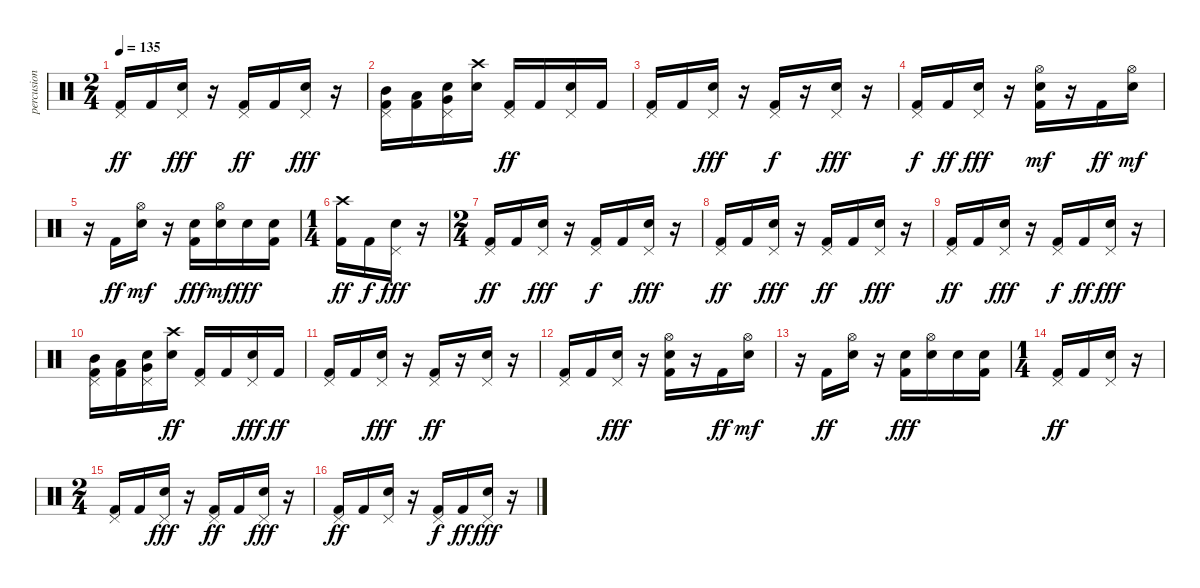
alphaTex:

\track ("percusion" "percusion") {instrument percussion}
\staff {score}
\articulation defaults
\ts (2 4)
\tempo 135
\clef neutral
\ks c
("Kick (hit) 2" "Pedal Hi-Hat (hit)").16{dy ff} "Kick (hit) 2".16 ("Electric Snare (hit)" "Pedal Hi-Hat (hit)").16{dy fff} r.16 ("Kick (hit) 2" "Pedal Hi-Hat (hit)").16{dy ff} "Kick (hit) 2".16 ("Electric Snare (hit)" "Pedal Hi-Hat (hit)").16{dy fff} r.16 |
("Kick (hit) 2" "Mid Tom (hit)" "Pedal Hi-Hat (hit)").16 ("Kick (hit) 2" "Low Tom (hit)").16 ("Electric Snare (hit)" "Very Low Tom (hit)" "Pedal Hi-Hat (hit)").16 ("Electric Snare (hit)" "Crash high (hit)").16 ("Kick (hit) 2" "Pedal Hi-Hat (hit)").16{dy ff} "Kick (hit) 2".16 ("Electric Snare (hit)" "Pedal Hi-Hat (hit)").16 "Kick (hit) 2".16 |
("Kick (hit) 2" "Pedal Hi-Hat (hit)").16 "Kick (hit) 2".16 ("Electric Snare (hit)" "Pedal Hi-Hat (hit)").16{dy fff} r.16 ("Kick (hit) 2" "Pedal Hi-Hat (hit)").16{dy f} r.16 ("Electric Snare (hit)" "Pedal Hi-Hat (hit)").16{dy fff} r.16 |
("Kick (hit) 2" "Pedal Hi-Hat (hit)").16{dy f} "Kick (hit) 2".16{dy ff} ("Electric Snare (hit)" "Pedal Hi-Hat (hit)").16{dy fff} r.16 ("Kick (hit) 2" "Electric Snare (hit)" "Hi-Hat (open)").16{dy mf} r.16 "Kick (hit) 2".16{dy ff} ("Electric Snare (hit)" "Hi-Hat (open)").16{dy mf} |
r.16 "Kick (hit) 2".16{dy ff} ("Electric Snare (hit)" "Hi-Hat (open)").16{dy mf} r.16 ("Kick (hit) 2" "Electric Snare (hit)").16{dy fff} ("Electric Snare (hit)" "Hi-Hat (open)").16{dy mf} "Electric Snare (hit)".16{dy fff} ("Kick (hit) 2" "Electric Snare (hit)").16 |
\ts (1 4)
("Kick (hit) 2" "Crash high (hit)").16{dy ff} "Kick (hit) 2".16{dy f} ("Electric Snare (hit)" "Pedal Hi-Hat (hit)").16{dy fff} r.16 |
\ts (2 4)
("Kick (hit) 2" "Pedal Hi-Hat (hit)").16{dy ff} "Kick (hit) 2".16 ("Electric Snare (hit)" "Pedal Hi-Hat (hit)").16{dy fff} r.16 ("Kick (hit) 2" "Pedal Hi-Hat (hit)").16{dy f} "Kick (hit) 2".16 ("Electric Snare (hit)" "Pedal Hi-Hat (hit)").16{dy fff} r.16 |
("Kick (hit) 2" "Pedal Hi-Hat (hit)").16{dy ff} "Kick (hit) 2".16 ("Electric Snare (hit)" "Pedal Hi-Hat (hit)").16{dy fff} r.16 ("Kick (hit) 2" "Pedal Hi-Hat (hit)").16{dy ff} "Kick (hit) 2".16 ("Electric Snare (hit)" "Pedal Hi-Hat (hit)").16{dy fff} r.16 |
("Kick (hit) 2" "Pedal Hi-Hat (hit)").16{dy ff} "Kick (hit) 2".16 ("Electric Snare (hit)" "Pedal Hi-Hat (hit)").16{dy fff} r.16 ("Kick (hit) 2" "Pedal Hi-Hat (hit)").16{dy f} "Kick (hit) 2".16{dy ff} ("Electric Snare (hit)" "Pedal Hi-Hat (hit)").16{dy fff} r.16 |
("Kick (hit) 2" "Mid Tom (hit)" "Pedal Hi-Hat (hit)").16 ("Kick (hit) 2" "Low Tom (hit)").16 ("Electric Snare (hit)" "Very Low Tom (hit)" "Pedal Hi-Hat (hit)").16 ("Electric Snare (hit)" "Crash high (hit)").16{dy ff} ("Kick (hit) 2" "Pedal Hi-Hat (hit)").16 "Kick (hit) 2".16 ("Electric Snare (hit)" "Pedal Hi-Hat (hit)").16{dy fff} "Kick (hit) 2".16{dy ff} |
("Kick (hit) 2" "Pedal Hi-Hat (hit)").16 "Kick (hit) 2".16 ("Electric Snare (hit)" "Pedal Hi-Hat (hit)").16{dy fff} r.16 ("Kick (hit) 2" "Pedal Hi-Hat (hit)").16{dy ff} r.16 ("Electric Snare (hit)" "Pedal Hi-Hat (hit)").16 r.16 |
("Kick (hit) 2" "Pedal Hi-Hat (hit)").16 "Kick (hit) 2".16 ("Electric Snare (hit)" "Pedal Hi-Hat (hit)").16{dy fff} r.16 ("Kick (hit) 2" "Electric Snare (hit)" "Hi-Hat (open)").16 r.16 "Kick (hit) 2".16{dy ff} ("Electric Snare (hit)" "Hi-Hat (open)").16{dy mf} |
r.16 "Kick (hit) 2".16{dy ff} ("Electric Snare (hit)" "Hi-Hat (open)").16 r.16 ("Kick (hit) 2" "Electric Snare (hit)").16{dy fff} ("Electric Snare (hit)" "Hi-Hat (open)").16 "Electric Snare (hit)".16 ("Kick (hit) 2" "Electric Snare (hit)").16 |
\ts (1 4)
("Kick (hit) 2" "Pedal Hi-Hat (hit)").16{dy ff} "Kick (hit) 2".16 ("Electric Snare (hit)" "Pedal Hi-Hat (hit)").16 r.16 |
\ts (2 4)
("Kick (hit) 2" "Pedal Hi-Hat (hit)").16 "Kick (hit) 2".16 ("Electric Snare (hit)" "Pedal Hi-Hat (hit)").16{dy fff} r.16 ("Kick (hit) 2" "Pedal Hi-Hat (hit)").16{dy ff} "Kick (hit) 2".16 ("Electric Snare (hit)" "Pedal Hi-Hat (hit)").16{dy fff} r.16 |
("Kick (hit) 2" "Pedal Hi-Hat (hit)").16{dy ff} "Kick (hit) 2".16 ("Electric Snare (hit)" "Pedal Hi-Hat (hit)").16 r.16 ("Kick (hit) 2" "Pedal Hi-Hat (hit)").16{dy f} "Kick (hit) 2".16{dy ff} ("Electric Snare (hit)" "Pedal Hi-Hat (hit)").16{dy fff} r.16
